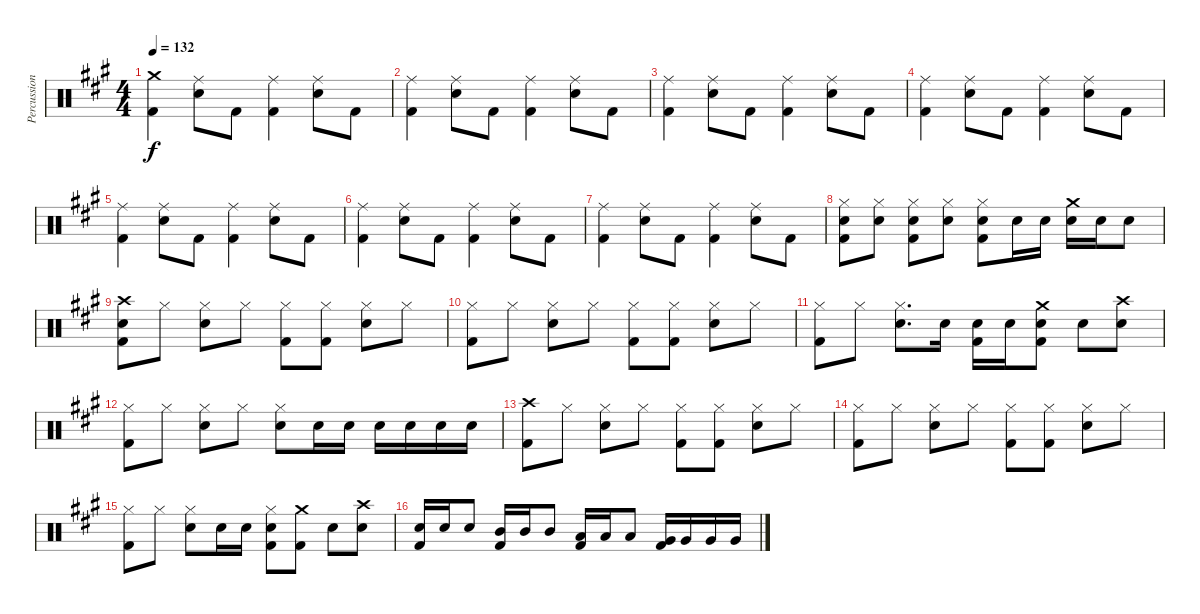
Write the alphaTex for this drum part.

\track ("Percussion" "Percussion") {instrument percussion}
\staff {score}
\articulation defaults
\ts (4 4)
\tempo 132
\clef neutral
\ks a
("Crash medium (hit)" "Kick (hit) 2").4{dy f} ("Ride (middle)" "Snare (hit) 2").8 "Kick (hit) 2".8 ("Ride (middle)" "Kick (hit) 2").4 ("Ride (middle)" "Snare (hit) 2").8 "Kick (hit) 2".8 |
("Ride (middle)" "Kick (hit) 2").4 ("Ride (middle)" "Snare (hit) 2").8 "Kick (hit) 2".8 ("Ride (middle)" "Kick (hit) 2").4 ("Ride (middle)" "Snare (hit) 2").8 "Kick (hit) 2".8 |
("Ride (middle)" "Kick (hit) 2").4 ("Ride (middle)" "Snare (hit) 2").8 "Kick (hit) 2".8 ("Ride (middle)" "Kick (hit) 2").4 ("Ride (middle)" "Snare (hit) 2").8 "Kick (hit) 2".8 |
("Ride (middle)" "Kick (hit) 2").4 ("Ride (middle)" "Snare (hit) 2").8 "Kick (hit) 2".8 ("Ride (middle)" "Kick (hit) 2").4 ("Ride (middle)" "Snare (hit) 2").8 "Kick (hit) 2".8 |
("Ride (middle)" "Kick (hit) 2").4 ("Ride (middle)" "Snare (hit) 2").8 "Kick (hit) 2".8 ("Ride (middle)" "Kick (hit) 2").4 ("Ride (middle)" "Snare (hit) 2").8 "Kick (hit) 2".8 |
("Ride (middle)" "Kick (hit) 2").4 ("Ride (middle)" "Snare (hit) 2").8 "Kick (hit) 2".8 ("Ride (middle)" "Kick (hit) 2").4 ("Ride (middle)" "Snare (hit) 2").8 "Kick (hit) 2".8 |
("Ride (middle)" "Kick (hit) 2").4 ("Ride (middle)" "Snare (hit) 2").8 "Kick (hit) 2".8 ("Ride (middle)" "Kick (hit) 2").4 ("Ride (middle)" "Snare (hit) 2").8 "Kick (hit) 2".8 |
("Hi-Hat (closed)" "Snare (hit) 2" "Kick (hit) 2").8 ("Hi-Hat (closed)" "Snare (hit) 2").8 ("Hi-Hat (closed)" "Snare (hit) 2" "Kick (hit) 2").8 ("Hi-Hat (closed)" "Snare (hit) 2").8 ("Hi-Hat (closed)" "Snare (hit) 2" "Kick (hit) 2").8 "Snare (hit) 2".16 "Snare (hit) 2".16 ("Crash medium (hit)" "Snare (hit) 2").16 "Snare (hit) 2".16 "Snare (hit) 2".8 |
("Crash high (hit)" "Snare (hit) 2" "Kick (hit) 2").8 "Hi-Hat (closed)".8 ("Hi-Hat (closed)" "Snare (hit) 2").8 "Hi-Hat (closed)".8 ("Hi-Hat (closed)" "Kick (hit) 2").8 ("Hi-Hat (closed)" "Kick (hit) 2").8 ("Hi-Hat (closed)" "Snare (hit) 2").8 "Hi-Hat (closed)".8 |
("Hi-Hat (closed)" "Kick (hit) 2").8 "Hi-Hat (closed)".8 ("Hi-Hat (closed)" "Snare (hit) 2").8 "Hi-Hat (closed)".8 ("Hi-Hat (closed)" "Kick (hit) 2").8 ("Hi-Hat (closed)" "Kick (hit) 2").8 ("Hi-Hat (closed)" "Snare (hit) 2").8 "Hi-Hat (closed)".8 |
("Hi-Hat (closed)" "Kick (hit) 2").8 "Hi-Hat (closed)".8 ("Hi-Hat (closed)" "Snare (hit) 2").8{d} "Snare (hit) 2".16 ("Snare (hit) 2" "Kick (hit) 2").16 "Snare (hit) 2".16 ("Crash medium (hit)" "Snare (hit) 2" "Kick (hit) 2").8 "Snare (hit) 2".8 ("Crash high (hit)" "Snare (hit) 2").8 |
("Hi-Hat (closed)" "Kick (hit) 2").8 "Hi-Hat (closed)".8 ("Hi-Hat (closed)" "Snare (hit) 2").8 "Hi-Hat (closed)".8 ("Hi-Hat (closed)" "Snare (hit) 2").8 "Snare (hit) 2".16 "Snare (hit) 2".16 "Snare (hit) 2".16 "Snare (hit) 2".16 "Snare (hit) 2".16 "Snare (hit) 2".16 |
("Crash high (hit)" "Kick (hit) 2").8 "Hi-Hat (closed)".8 ("Hi-Hat (closed)" "Snare (hit) 2").8 "Hi-Hat (closed)".8 ("Hi-Hat (closed)" "Kick (hit) 2").8 ("Hi-Hat (closed)" "Kick (hit) 2").8 ("Hi-Hat (closed)" "Snare (hit) 2").8 "Hi-Hat (closed)".8 |
("Hi-Hat (closed)" "Kick (hit) 2").8 "Hi-Hat (closed)".8 ("Hi-Hat (closed)" "Snare (hit) 2").8 "Hi-Hat (closed)".8 ("Hi-Hat (closed)" "Kick (hit) 2").8 ("Hi-Hat (closed)" "Kick (hit) 2").8 ("Hi-Hat (closed)" "Snare (hit) 2").8 "Hi-Hat (closed)".8 |
("Hi-Hat (closed)" "Kick (hit) 2").8 "Hi-Hat (closed)".8 ("Hi-Hat (closed)" "Snare (hit) 2").8 "Snare (hit) 2".16 "Snare (hit) 2".16 ("Hi-Hat (closed)" "Snare (hit) 2" "Kick (hit) 2").8 ("Crash medium (hit)" "Kick (hit) 2").8 "Snare (hit) 2".8 ("Crash high (hit)" "Snare (hit) 2").8 |
("Snare (hit) 2" "Kick (hit) 2").16 "Snare (hit) 2".16 "Snare (hit) 2".8 ("Mid Tom (hit)" "Kick (hit) 2").16 "Mid Tom (hit)".16 "Mid Tom (hit)".8 ("Low Tom (hit)" "Kick (hit) 2").16 "Low Tom (hit)".16 "Low Tom (hit)".8 ("Very Low Tom (hit)" "Kick (hit) 2").16 "Very Low Tom (hit)".16 "Very Low Tom (hit)".16 "Very Low Tom (hit)".16
